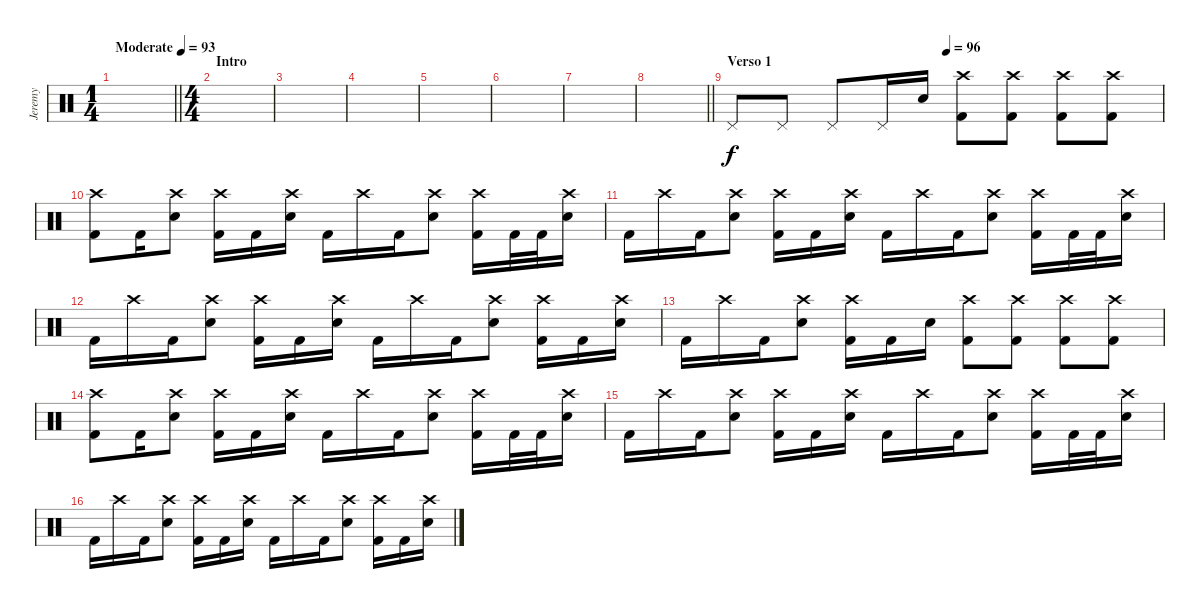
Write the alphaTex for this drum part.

\track ("Jeremy" "Jeremy") {instrument percussion}
\staff {score}
\articulation defaults
\ts (1 4)
\tempo (93 "Moderate")
\clef neutral
\barLineRight lightlight
\ks c
|
\ts (4 4)
\section ("" "Intro")
|
|
|
|
|
|
\barLineRight lightlight
|
\section ("" "Verso 1")
\tempo (96 0.5)
"Pedal Hi-Hat (hit)".8 "Pedal Hi-Hat (hit)".8 "Pedal Hi-Hat (hit)".8 "Pedal Hi-Hat (hit)".16 "Snare (hit) 2".16 ("Crash high (hit)" "Kick (hit) 2").8 ("Crash high (hit)" "Kick (hit) 2").8 ("Crash high (hit)" "Kick (hit) 2").8 ("Crash high (hit)" "Kick (hit) 2").8 |
("Crash high (hit)" "Kick (hit) 2").8 "Kick (hit) 2".16 ("Crash high (hit)" "Snare (hit) 2").8 ("Crash high (hit)" "Kick (hit) 2").16 "Kick (hit) 2".16 ("Crash high (hit)" "Snare (hit) 2").16 "Kick (hit) 2".16 "Crash high (hit)".16 "Kick (hit) 2".16 ("Crash high (hit)" "Snare (hit) 2").8 ("Crash high (hit)" "Kick (hit) 2").16 "Kick (hit) 2".32 "Kick (hit) 2".32 ("Crash high (hit)" "Snare (hit) 2").16 |
"Kick (hit) 2".16 "Crash high (hit)".16 "Kick (hit) 2".16 ("Crash high (hit)" "Snare (hit) 2").8 ("Crash high (hit)" "Kick (hit) 2").16 "Kick (hit) 2".16 ("Crash high (hit)" "Snare (hit) 2").16 "Kick (hit) 2".16 "Crash high (hit)".16 "Kick (hit) 2".16 ("Crash high (hit)" "Snare (hit) 2").8 ("Crash high (hit)" "Kick (hit) 2").16 "Kick (hit) 2".32 "Kick (hit) 2".32 ("Crash high (hit)" "Snare (hit) 2").16 |
"Kick (hit) 2".16 "Crash high (hit)".16 "Kick (hit) 2".16 ("Crash high (hit)" "Snare (hit) 2").8 ("Crash high (hit)" "Kick (hit) 2").16 "Kick (hit) 2".16 ("Crash high (hit)" "Snare (hit) 2").16 "Kick (hit) 2".16 "Crash high (hit)".16 "Kick (hit) 2".16 ("Crash high (hit)" "Snare (hit) 2").8 ("Crash high (hit)" "Kick (hit) 2").16 "Kick (hit) 2".16 ("Crash high (hit)" "Snare (hit) 2").16 |
"Kick (hit) 2".16 "Crash high (hit)".16 "Kick (hit) 2".16 ("Crash high (hit)" "Snare (hit) 2").8 ("Crash high (hit)" "Kick (hit) 2").16 "Kick (hit) 2".16 "Snare (hit) 2".16 ("Crash high (hit)" "Kick (hit) 2").8 ("Crash high (hit)" "Kick (hit) 2").8 ("Crash high (hit)" "Kick (hit) 2").8 ("Crash high (hit)" "Kick (hit) 2").8 |
("Crash high (hit)" "Kick (hit) 2").8 "Kick (hit) 2".16 ("Crash high (hit)" "Snare (hit) 2").8 ("Crash high (hit)" "Kick (hit) 2").16 "Kick (hit) 2".16 ("Crash high (hit)" "Snare (hit) 2").16 "Kick (hit) 2".16 "Crash high (hit)".16 "Kick (hit) 2".16 ("Crash high (hit)" "Snare (hit) 2").8 ("Crash high (hit)" "Kick (hit) 2").16 "Kick (hit) 2".32 "Kick (hit) 2".32 ("Crash high (hit)" "Snare (hit) 2").16 |
"Kick (hit) 2".16 "Crash high (hit)".16 "Kick (hit) 2".16 ("Crash high (hit)" "Snare (hit) 2").8 ("Crash high (hit)" "Kick (hit) 2").16 "Kick (hit) 2".16 ("Crash high (hit)" "Snare (hit) 2").16 "Kick (hit) 2".16 "Crash high (hit)".16 "Kick (hit) 2".16 ("Crash high (hit)" "Snare (hit) 2").8 ("Crash high (hit)" "Kick (hit) 2").16 "Kick (hit) 2".32 "Kick (hit) 2".32 ("Crash high (hit)" "Snare (hit) 2").16 |
"Kick (hit) 2".16 "Crash high (hit)".16 "Kick (hit) 2".16 ("Crash high (hit)" "Snare (hit) 2").8 ("Crash high (hit)" "Kick (hit) 2").16 "Kick (hit) 2".16 ("Crash high (hit)" "Snare (hit) 2").16 "Kick (hit) 2".16 "Crash high (hit)".16 "Kick (hit) 2".16 ("Crash high (hit)" "Snare (hit) 2").8 ("Crash high (hit)" "Kick (hit) 2").16 "Kick (hit) 2".16 ("Crash high (hit)" "Snare (hit) 2").16
